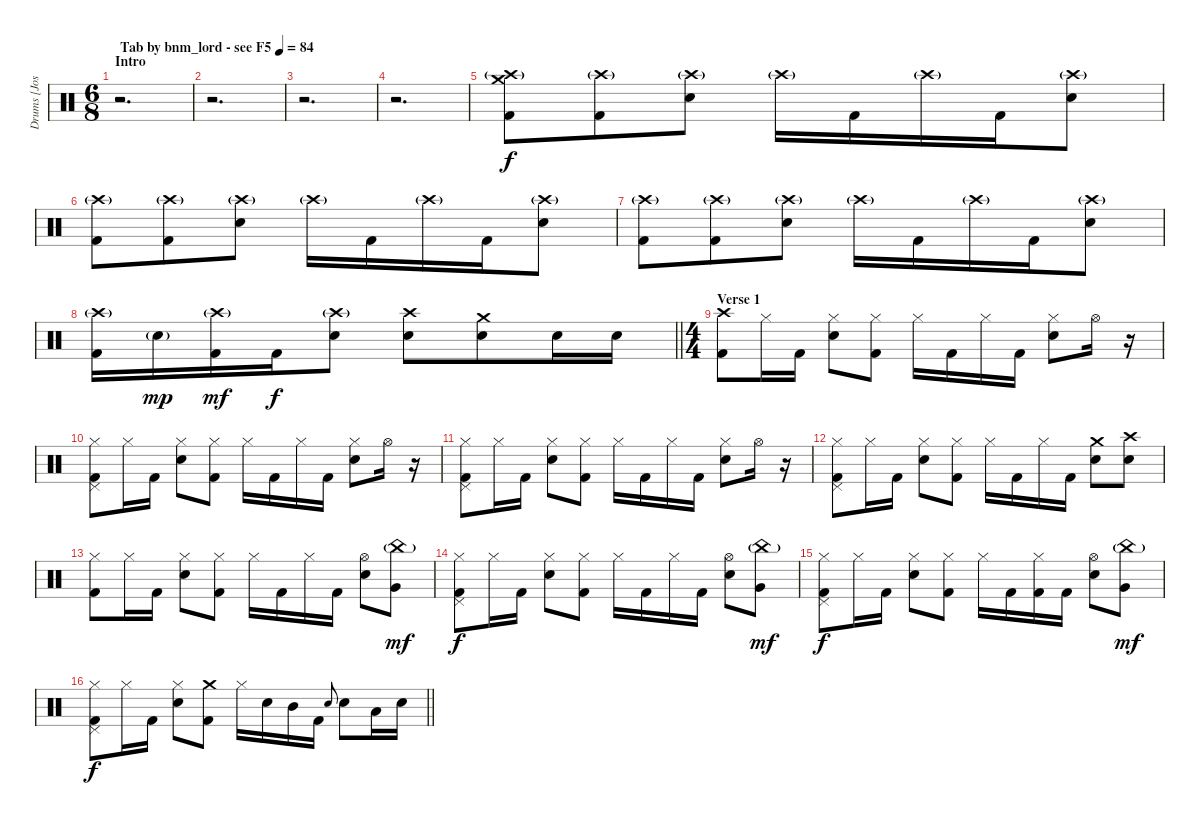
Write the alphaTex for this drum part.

\track ("Drums [Josh Freese]" "Drums [Jos") {instrument percussion}
\staff {score}
\articulation defaults
\ts (6 8)
\section ("" "Intro")
\tempo (84 "Tab by bnm_lord - see F5")
\clef neutral
\ks c
r.2{d dy f} |
r.2{d} |
r.2{d} |
r.2{d} |
("Crash medium (hit)" "Crash high (hit)"{g} "Kick (hit) 2").8 ("Crash high (hit)"{g} "Kick (hit) 2").8 ("Crash high (hit)"{g} "Electric Snare (hit)").8 "Crash high (hit)"{g}.16 "Kick (hit) 2".16 "Crash high (hit)"{g}.16 "Kick (hit) 2".16 ("Crash high (hit)"{g} "Electric Snare (hit)").8 |
("Crash high (hit)"{g} "Kick (hit) 2").8 ("Crash high (hit)"{g} "Kick (hit) 2").8 ("Crash high (hit)"{g} "Electric Snare (hit)").8 "Crash high (hit)"{g}.16 "Kick (hit) 2".16 "Crash high (hit)"{g}.16 "Kick (hit) 2".16 ("Crash high (hit)"{g} "Electric Snare (hit)").8 |
("Crash high (hit)"{g} "Kick (hit) 2").8 ("Crash high (hit)"{g} "Kick (hit) 2").8 ("Crash high (hit)"{g} "Electric Snare (hit)").8 "Crash high (hit)"{g}.16 "Kick (hit) 2".16 "Crash high (hit)"{g}.16 "Kick (hit) 2".16 ("Crash high (hit)"{g} "Electric Snare (hit)").8 |
\barLineRight lightlight
("Crash high (hit)"{g} "Kick (hit) 2").16 "Electric Snare (hit)"{g}.16{dy mp} ("Crash high (hit)"{g} "Kick (hit) 2").16{dy mf} "Kick (hit) 2".16{dy f} ("Crash high (hit)"{g} "Electric Snare (hit)").8 ("Crash high (hit)" "Electric Snare (hit)").8 ("Crash medium (hit)" "Electric Snare (hit)").8 "Electric Snare (hit)".16 "Electric Snare (hit)".16 |
\ts (4 4)
\section ("" "Verse 1")
("Crash high (hit)" "Kick (hit) 2").8 "Hi-Hat (closed)".16 "Kick (hit) 2".16 ("Hi-Hat (closed)" "Electric Snare (hit)").8 ("Hi-Hat (closed)" "Kick (hit) 2").8 "Hi-Hat (closed)".16 "Kick (hit) 2".16 "Hi-Hat (closed)".16 "Kick (hit) 2".16 ("Hi-Hat (closed)" "Electric Snare (hit)").8 "Hi-Hat (open)".16 r.16 |
("Pedal Hi-Hat (hit)" "Hi-Hat (closed)" "Kick (hit) 2").8 "Hi-Hat (closed)".16 "Kick (hit) 2".16 ("Hi-Hat (closed)" "Electric Snare (hit)").8 ("Hi-Hat (closed)" "Kick (hit) 2").8 "Hi-Hat (closed)".16 "Kick (hit) 2".16 "Hi-Hat (closed)".16 "Kick (hit) 2".16 ("Hi-Hat (closed)" "Electric Snare (hit)").8 "Hi-Hat (open)".16 r.16 |
("Pedal Hi-Hat (hit)" "Hi-Hat (closed)" "Kick (hit) 2").8 "Hi-Hat (closed)".16 "Kick (hit) 2".16 ("Hi-Hat (closed)" "Electric Snare (hit)").8 ("Hi-Hat (closed)" "Kick (hit) 2").8 "Hi-Hat (closed)".16 "Kick (hit) 2".16 "Hi-Hat (closed)".16 "Kick (hit) 2".16 ("Hi-Hat (closed)" "Electric Snare (hit)").8 "Hi-Hat (open)".16 r.16 |
("Pedal Hi-Hat (hit)" "Hi-Hat (closed)" "Kick (hit) 2").8 "Hi-Hat (closed)".16 "Kick (hit) 2".16 ("Hi-Hat (closed)" "Electric Snare (hit)").8 ("Hi-Hat (closed)" "Kick (hit) 2").8 "Hi-Hat (closed)".16 "Kick (hit) 2".16 "Hi-Hat (closed)".16 "Kick (hit) 2".16 ("Crash medium (hit)" "Electric Snare (hit)").8 ("Crash high (hit)" "Electric Snare (hit)").8 |
("Hi-Hat (closed)" "Kick (hit) 2").8 "Hi-Hat (closed)".16 "Kick (hit) 2".16 ("Hi-Hat (closed)" "Electric Snare (hit)").8 ("Hi-Hat (closed)" "Kick (hit) 2").8 "Hi-Hat (closed)".16 "Kick (hit) 2".16 "Hi-Hat (closed)".16 "Kick (hit) 2".16 ("Hi-Hat (open)" "Electric Snare (hit)").8 ("China (hit)"{g} "Very Low Tom (hit)").8{dy mf} |
("Pedal Hi-Hat (hit)" "Hi-Hat (closed)" "Kick (hit) 2").8{dy f} "Hi-Hat (closed)".16 "Kick (hit) 2".16 ("Hi-Hat (closed)" "Electric Snare (hit)").8 ("Hi-Hat (closed)" "Kick (hit) 2").8 "Hi-Hat (closed)".16 "Kick (hit) 2".16 "Hi-Hat (closed)".16 "Kick (hit) 2".16 ("Hi-Hat (open)" "Electric Snare (hit)").8 ("China (hit)"{g} "Very Low Tom (hit)").8{dy mf} |
("Pedal Hi-Hat (hit)" "Hi-Hat (closed)" "Kick (hit) 2").8{dy f} "Hi-Hat (closed)".16 "Kick (hit) 2".16 ("Hi-Hat (closed)" "Electric Snare (hit)").8 ("Hi-Hat (closed)" "Kick (hit) 2").8 "Hi-Hat (closed)".16 "Kick (hit) 2".16 ("Hi-Hat (closed)" "Kick (hit) 2").16 "Kick (hit) 2".16 ("Hi-Hat (open)" "Electric Snare (hit)").8 ("China (hit)"{g} "Very Low Tom (hit)").8{dy mf} |
\barLineRight lightlight
("Pedal Hi-Hat (hit)" "Hi-Hat (closed)" "Kick (hit) 2").8{dy f} "Hi-Hat (closed)".16 "Kick (hit) 2".16 ("Hi-Hat (closed)" "Electric Snare (hit)").8 ("Crash medium (hit)" "Kick (hit) 2").8 "Hi-Hat (closed)".16 "Electric Snare (hit)".16 "Mid Tom (hit)".16 "Kick (hit) 2".16 "Electric Snare (hit)".8{gr onbeat} "Electric Snare (hit)".8 "Low Tom (hit)".16 "Electric Snare (hit)".16
